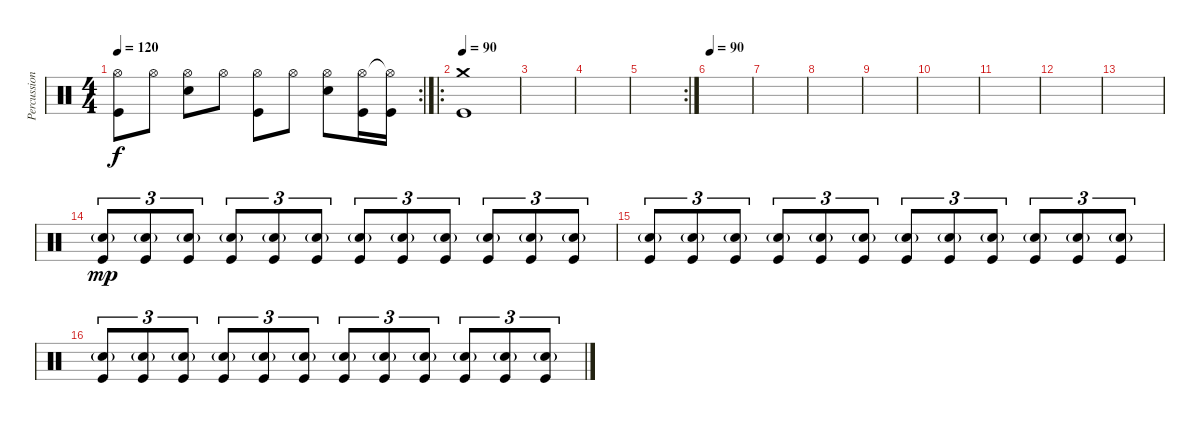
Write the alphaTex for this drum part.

\track ("Percussion" "Percussion") {instrument percussion}
\staff {score}
\articulation defaults
\rc 2
\ts (4 4)
\tempo 120
\clef neutral
\ks c
("Hi-Hat (open)" "Kick (hit)").8{dy f} "Hi-Hat (open)".8 ("Hi-Hat (open)" "Snare (hit) 2").8 "Hi-Hat (open)".8 ("Hi-Hat (open)" "Kick (hit)").8 "Hi-Hat (open)".8 ("Hi-Hat (open)" "Snare (hit) 2").8 ("Hi-Hat (open)" "Kick (hit)").16 ("Hi-Hat (open)"{t} "Kick (hit)").16 |
\ro
\tempo 90
("Crash medium (hit)" "Kick (hit)").1 |
|
|
\rc 2
|
\tempo 90
|
|
|
|
|
|
|
|
("Snare (hit) 2"{g} "Kick (hit)").8{tu (3 2) dy mp} ("Snare (hit) 2"{g} "Kick (hit)").8{tu (3 2)} ("Snare (hit) 2"{g} "Kick (hit)").8{tu (3 2)} ("Snare (hit) 2"{g} "Kick (hit)").8{tu (3 2)} ("Snare (hit) 2"{g} "Kick (hit)").8{tu (3 2)} ("Snare (hit) 2"{g} "Kick (hit)").8{tu (3 2)} ("Snare (hit) 2"{g} "Kick (hit)").8{tu (3 2)} ("Snare (hit) 2"{g} "Kick (hit)").8{tu (3 2)} ("Snare (hit) 2"{g} "Kick (hit)").8{tu (3 2)} ("Snare (hit) 2"{g} "Kick (hit)").8{tu (3 2)} ("Snare (hit) 2"{g} "Kick (hit)").8{tu (3 2)} ("Snare (hit) 2"{g} "Kick (hit)").8{tu (3 2)} |
("Snare (hit) 2"{g} "Kick (hit)").8{tu (3 2)} ("Snare (hit) 2"{g} "Kick (hit)").8{tu (3 2)} ("Snare (hit) 2"{g} "Kick (hit)").8{tu (3 2)} ("Snare (hit) 2"{g} "Kick (hit)").8{tu (3 2)} ("Snare (hit) 2"{g} "Kick (hit)").8{tu (3 2)} ("Snare (hit) 2"{g} "Kick (hit)").8{tu (3 2)} ("Snare (hit) 2"{g} "Kick (hit)").8{tu (3 2)} ("Snare (hit) 2"{g} "Kick (hit)").8{tu (3 2)} ("Snare (hit) 2"{g} "Kick (hit)").8{tu (3 2)} ("Snare (hit) 2"{g} "Kick (hit)").8{tu (3 2)} ("Snare (hit) 2"{g} "Kick (hit)").8{tu (3 2)} ("Snare (hit) 2"{g} "Kick (hit)").8{tu (3 2)} |
("Snare (hit) 2"{g} "Kick (hit)").8{tu (3 2)} ("Snare (hit) 2"{g} "Kick (hit)").8{tu (3 2)} ("Snare (hit) 2"{g} "Kick (hit)").8{tu (3 2)} ("Snare (hit) 2"{g} "Kick (hit)").8{tu (3 2)} ("Snare (hit) 2"{g} "Kick (hit)").8{tu (3 2)} ("Snare (hit) 2"{g} "Kick (hit)").8{tu (3 2)} ("Snare (hit) 2"{g} "Kick (hit)").8{tu (3 2)} ("Snare (hit) 2"{g} "Kick (hit)").8{tu (3 2)} ("Snare (hit) 2"{g} "Kick (hit)").8{tu (3 2)} ("Snare (hit) 2"{g} "Kick (hit)").8{tu (3 2)} ("Snare (hit) 2"{g} "Kick (hit)").8{tu (3 2)} ("Snare (hit) 2"{g} "Kick (hit)").8{tu (3 2)}
